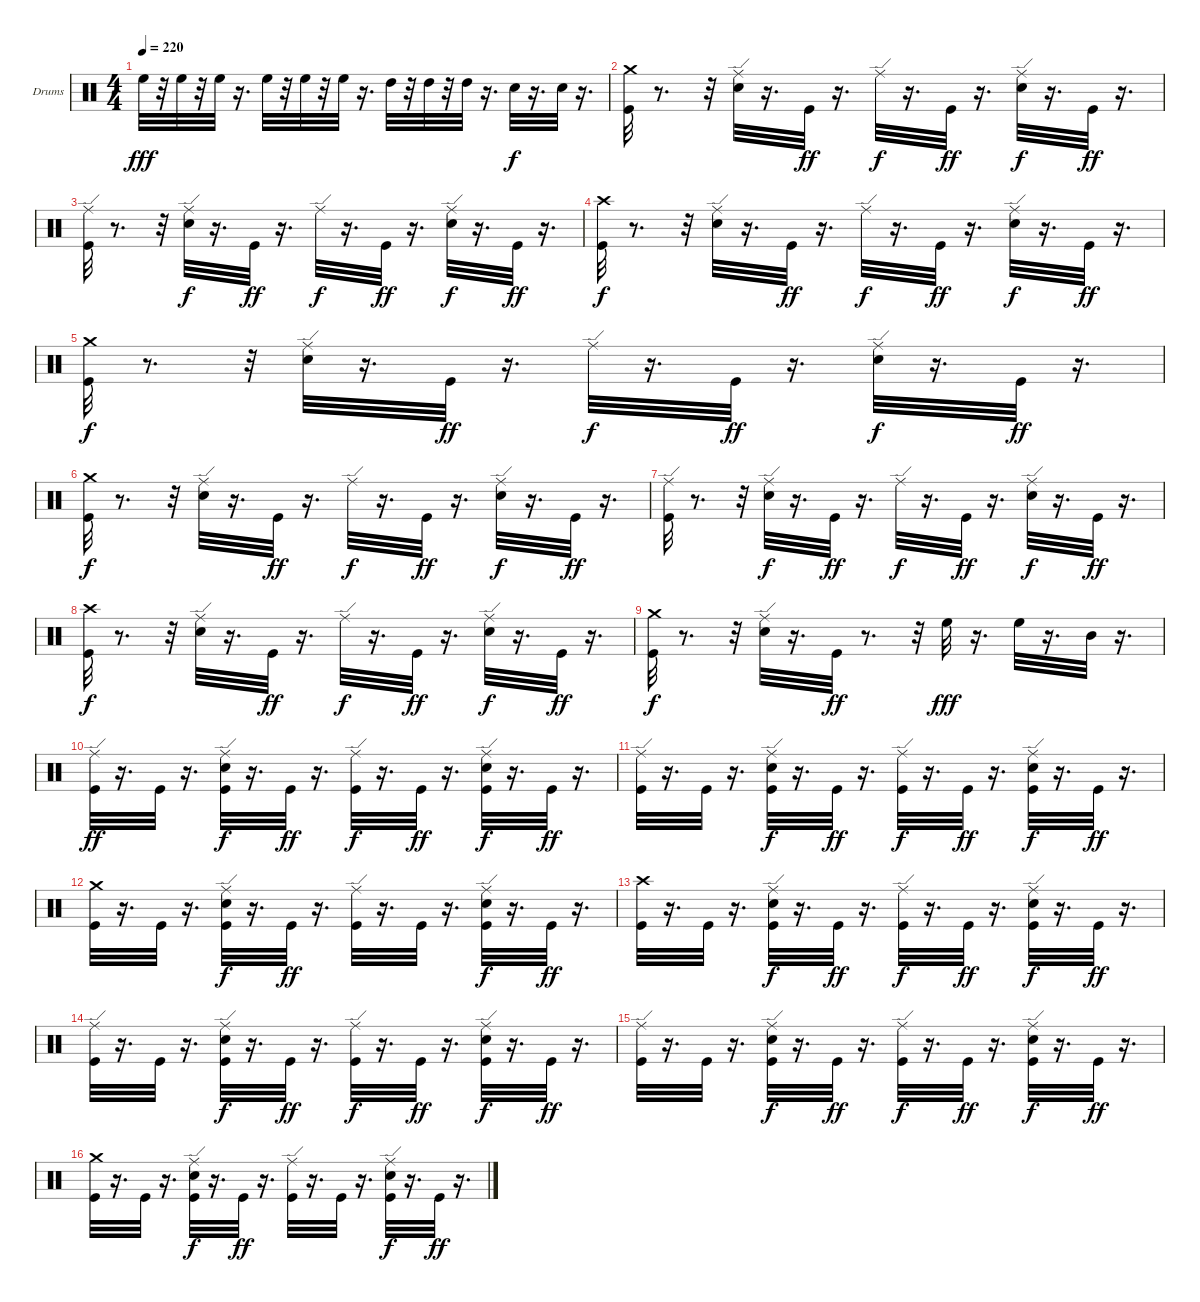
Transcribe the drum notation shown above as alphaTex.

\defaultSystemsLayout 4
\bracketExtendMode groupsimilarinstruments
\firstSystemTrackNameOrientation horizontal
\otherSystemsTrackNameOrientation horizontal
\track ("Дмитрий Кривенков" "Drums") {instrument percussion}
\staff {score}
\articulation defaults
\ts (4 4)
\tempo 220
\clef neutral
\ks c "High Floor Tom (hit)".32{dy fff}
r.32 "High Floor Tom (hit)".32 r.32 "High Floor Tom (hit)".32 r.16{d} "High Floor Tom (hit)".32 r.32 "High Floor Tom (hit)".32 r.32 "High Floor Tom (hit)".32 r.16{d} "High Tom (hit)".32 r.32 "High Tom (hit)".32 r.32 "High Tom (hit)".32 r.16{d} "Snare (hit) 2".32{dy f} r.16{d} "Snare (hit) 2".32 r.16{d} |
("Crash medium (hit)" "Kick (hit)").32 r.8{d} r.32 ("Ride (edge)" "Snare (hit) 2").32 r.16{d} "Kick (hit)".32{dy ff} r.16{d} "Ride (edge)".32{dy f} r.16{d} "Kick (hit)".32{dy ff} r.16{d} ("Ride (edge)" "Snare (hit) 2").32{dy f} r.16{d} "Kick (hit)".32{dy ff} r.16{d} |
("Kick (hit)" "Ride (edge)").32 r.8{d} r.32 ("Snare (hit) 2" "Ride (edge)").32{dy f} r.16{d} "Kick (hit)".32{dy ff} r.16{d} "Ride (edge)".32{dy f} r.16{d} "Kick (hit)".32{dy ff} r.16{d} ("Snare (hit) 2" "Ride (edge)").32{dy f} r.16{d} "Kick (hit)".32{dy ff} r.16{d} |
("Crash high (hit)" "Kick (hit)").32{dy f} r.8{d} r.32 ("Ride (edge)" "Snare (hit) 2").32 r.16{d} "Kick (hit)".32{dy ff} r.16{d} "Ride (edge)".32{dy f} r.16{d} "Kick (hit)".32{dy ff} r.16{d} ("Ride (edge)" "Snare (hit) 2").32{dy f} r.16{d} "Kick (hit)".32{dy ff} r.16{d} |
("Crash medium (hit)" "Kick (hit)").32{dy f} r.8{d} r.32 ("Ride (edge)" "Snare (hit) 2").32 r.16{d} "Kick (hit)".32{dy ff} r.16{d} "Ride (edge)".32{dy f} r.16{d} "Kick (hit)".32{dy ff} r.16{d} ("Ride (edge)" "Snare (hit) 2").32{dy f} r.16{d} "Kick (hit)".32{dy ff} r.16{d} |
("Crash medium (hit)" "Kick (hit)").32{dy f} r.8{d} r.32 ("Ride (edge)" "Snare (hit) 2").32 r.16{d} "Kick (hit)".32{dy ff} r.16{d} "Ride (edge)".32{dy f} r.16{d} "Kick (hit)".32{dy ff} r.16{d} ("Ride (edge)" "Snare (hit) 2").32{dy f} r.16{d} "Kick (hit)".32{dy ff} r.16{d} |
("Kick (hit)" "Ride (edge)").32 r.8{d} r.32 ("Snare (hit) 2" "Ride (edge)").32{dy f} r.16{d} "Kick (hit)".32{dy ff} r.16{d} "Ride (edge)".32{dy f} r.16{d} "Kick (hit)".32{dy ff} r.16{d} ("Snare (hit) 2" "Ride (edge)").32{dy f} r.16{d} "Kick (hit)".32{dy ff} r.16{d} |
("Crash high (hit)" "Kick (hit)").32{dy f} r.8{d} r.32 ("Ride (edge)" "Snare (hit) 2").32 r.16{d} "Kick (hit)".32{dy ff} r.16{d} "Ride (edge)".32{dy f} r.16{d} "Kick (hit)".32{dy ff} r.16{d} ("Ride (edge)" "Snare (hit) 2").32{dy f} r.16{d} "Kick (hit)".32{dy ff} r.16{d} |
("Crash medium (hit)" "Kick (hit)").32{dy f} r.8{d} r.32 ("Ride (edge)" "Snare (hit) 2").32 r.16{d} "Kick (hit)".32{dy ff} r.8{d} r.32 "High Floor Tom (hit)".32{dy fff} r.16{d} "High Floor Tom (hit)".32 r.16{d} "Mid Tom (hit)".32 r.16{d} |
("Kick (hit)" "Ride (edge)").32{dy ff} r.16{d} "Kick (hit)".32 r.16{d} ("Snare (hit) 2" "Kick (hit)" "Ride (edge)").32{dy f} r.16{d} "Kick (hit)".32{dy ff} r.16{d} ("Ride (edge)" "Kick (hit)").32{dy f} r.16{d} "Kick (hit)".32{dy ff} r.16{d} ("Snare (hit) 2" "Kick (hit)" "Ride (edge)").32{dy f} r.16{d} "Kick (hit)".32{dy ff} r.16{d} |
("Kick (hit)" "Ride (edge)").32 r.16{d} "Kick (hit)".32 r.16{d} ("Snare (hit) 2" "Kick (hit)" "Ride (edge)").32{dy f} r.16{d} "Kick (hit)".32{dy ff} r.16{d} ("Ride (edge)" "Kick (hit)").32{dy f} r.16{d} "Kick (hit)".32{dy ff} r.16{d} ("Snare (hit) 2" "Kick (hit)" "Ride (edge)").32{dy f} r.16{d} "Kick (hit)".32{dy ff} r.16{d} |
("Kick (hit)" "Crash medium (hit)").32 r.16{d} "Kick (hit)".32 r.16{d} ("Ride (edge)" "Snare (hit) 2" "Kick (hit)").32{dy f} r.16{d} "Kick (hit)".32{dy ff} r.16{d} ("Kick (hit)" "Ride (edge)").32 r.16{d} "Kick (hit)".32 r.16{d} ("Ride (edge)" "Snare (hit) 2" "Kick (hit)").32{dy f} r.16{d} "Kick (hit)".32{dy ff} r.16{d} |
("Kick (hit)" "Crash high (hit)").32 r.16{d} "Kick (hit)".32 r.16{d} ("Snare (hit) 2" "Kick (hit)" "Ride (edge)").32{dy f} r.16{d} "Kick (hit)".32{dy ff} r.16{d} ("Ride (edge)" "Kick (hit)").32{dy f} r.16{d} "Kick (hit)".32{dy ff} r.16{d} ("Snare (hit) 2" "Kick (hit)" "Ride (edge)").32{dy f} r.16{d} "Kick (hit)".32{dy ff} r.16{d} |
("Kick (hit)" "Ride (edge)").32 r.16{d} "Kick (hit)".32 r.16{d} ("Snare (hit) 2" "Kick (hit)" "Ride (edge)").32{dy f} r.16{d} "Kick (hit)".32{dy ff} r.16{d} ("Ride (edge)" "Kick (hit)").32{dy f} r.16{d} "Kick (hit)".32{dy ff} r.16{d} ("Snare (hit) 2" "Kick (hit)" "Ride (edge)").32{dy f} r.16{d} "Kick (hit)".32{dy ff} r.16{d} |
("Kick (hit)" "Ride (edge)").32 r.16{d} "Kick (hit)".32 r.16{d} ("Snare (hit) 2" "Kick (hit)" "Ride (edge)").32{dy f} r.16{d} "Kick (hit)".32{dy ff} r.16{d} ("Ride (edge)" "Kick (hit)").32{dy f} r.16{d} "Kick (hit)".32{dy ff} r.16{d} ("Snare (hit) 2" "Kick (hit)" "Ride (edge)").32{dy f} r.16{d} "Kick (hit)".32{dy ff} r.16{d} |
("Kick (hit)" "Crash medium (hit)").32 r.16{d} "Kick (hit)".32 r.16{d} ("Ride (edge)" "Snare (hit) 2" "Kick (hit)").32{dy f} r.16{d} "Kick (hit)".32{dy ff} r.16{d} ("Kick (hit)" "Ride (edge)").32 r.16{d} "Kick (hit)".32 r.16{d} ("Ride (edge)" "Snare (hit) 2" "Kick (hit)").32{dy f} r.16{d} "Kick (hit)".32{dy ff} r.16{d}
